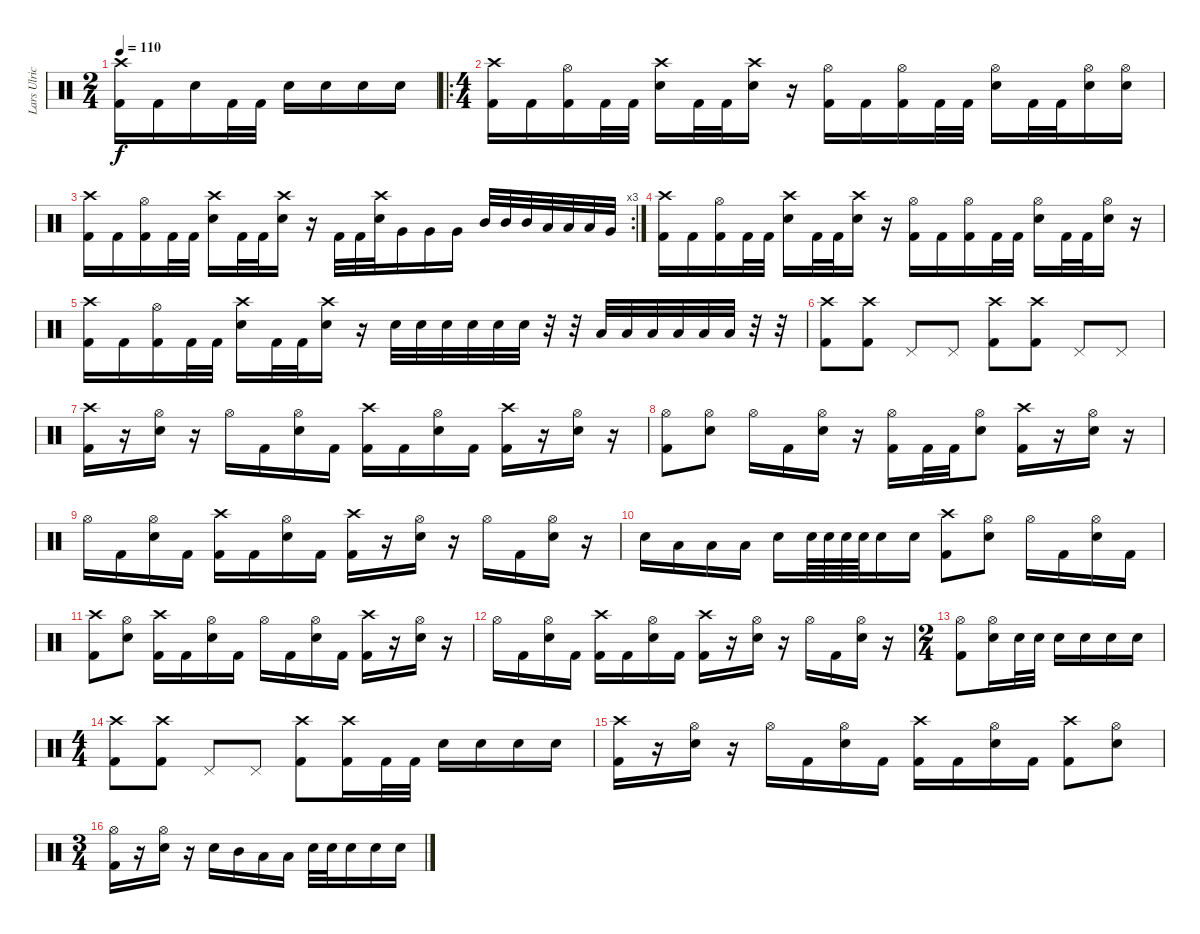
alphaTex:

\track ("Lars Ulrich" "Lars Ulric") {instrument percussion}
\staff {score}
\articulation defaults
\ts (2 4)
\tempo 110
\clef neutral
\ks c
("Crash high (hit)" "Kick (hit) 2").16{dy f} "Kick (hit) 2".16 "Snare (hit) 2".16 "Kick (hit) 2".32 "Kick (hit) 2".32 "Snare (hit) 2".16 "Snare (hit) 2".16 "Snare (hit) 2".16 "Snare (hit) 2".16 |
\ro
\ts (4 4)
("Crash high (hit)" "Kick (hit) 2").16 "Kick (hit) 2".16 ("Hi-Hat (open)" "Kick (hit) 2").16 "Kick (hit) 2".32 "Kick (hit) 2".32 ("Crash high (hit)" "Snare (hit) 2").16 "Kick (hit) 2".32 "Kick (hit) 2".32 ("Crash high (hit)" "Snare (hit) 2").16 r.16 ("Hi-Hat (open)" "Kick (hit) 2").16 "Kick (hit) 2".16 ("Hi-Hat (open)" "Kick (hit) 2").16 "Kick (hit) 2".32 "Kick (hit) 2".32 ("Hi-Hat (open)" "Snare (hit) 2").16 "Kick (hit) 2".32 "Kick (hit) 2".32 ("Hi-Hat (open)" "Snare (hit) 2").16 ("Hi-Hat (open)" "Snare (hit) 2").16 |
\rc 3
("Crash high (hit)" "Kick (hit) 2").16 "Kick (hit) 2".16 ("Hi-Hat (open)" "Kick (hit) 2").16 "Kick (hit) 2".32 "Kick (hit) 2".32 ("Crash high (hit)" "Snare (hit) 2").16 "Kick (hit) 2".32 "Kick (hit) 2".32 ("Crash high (hit)" "Snare (hit) 2").16 r.16 "Kick (hit) 2".32 "Kick (hit) 2".32 ("Crash high (hit)" "Snare (hit) 2").32 "Very Low Tom (hit)".16 "Very Low Tom (hit)".16 "Very Low Tom (hit)".16 "Mid Tom (hit)".32 "Mid Tom (hit)".32 "Mid Tom (hit)".32 "Low Tom (hit)".32 "Low Tom (hit)".32 "Low Tom (hit)".32 "Very Low Tom (hit)".32 |
("Crash high (hit)" "Kick (hit) 2").16 "Kick (hit) 2".16 ("Hi-Hat (open)" "Kick (hit) 2").16 "Kick (hit) 2".32 "Kick (hit) 2".32 ("Crash high (hit)" "Snare (hit) 2").16 "Kick (hit) 2".32 "Kick (hit) 2".32 ("Crash high (hit)" "Snare (hit) 2").16 r.16 ("Hi-Hat (open)" "Kick (hit) 2").16 "Kick (hit) 2".16 ("Hi-Hat (open)" "Kick (hit) 2").16 "Kick (hit) 2".32 "Kick (hit) 2".32 ("Hi-Hat (open)" "Snare (hit) 2").16 "Kick (hit) 2".32 "Kick (hit) 2".32 ("Hi-Hat (open)" "Snare (hit) 2").16 r.16 |
("Crash high (hit)" "Kick (hit) 2").16 "Kick (hit) 2".16 ("Hi-Hat (open)" "Kick (hit) 2").16 "Kick (hit) 2".32 "Kick (hit) 2".32 ("Crash high (hit)" "Snare (hit) 2").16 "Kick (hit) 2".32 "Kick (hit) 2".32 ("Crash high (hit)" "Snare (hit) 2").16 r.16 "Snare (hit) 2".32 "Snare (hit) 2".32 "Snare (hit) 2".32 "Snare (hit) 2".32 "Snare (hit) 2".32 "Snare (hit) 2".32 r.32 r.32 "Low Tom (hit)".32 "Low Tom (hit)".32 "Low Tom (hit)".32 "Low Tom (hit)".32 "Low Tom (hit)".32 "Low Tom (hit)".32 r.32 r.32 |
("Crash high (hit)" "Kick (hit) 2").8 ("Crash high (hit)" "Kick (hit) 2").8 "Pedal Hi-Hat (hit)".8 "Pedal Hi-Hat (hit)".8 ("Crash high (hit)" "Kick (hit) 2").8 ("Crash high (hit)" "Kick (hit) 2").8 "Pedal Hi-Hat (hit)".8 "Pedal Hi-Hat (hit)".8 |
("Crash high (hit)" "Kick (hit) 2").16 r.16 ("Hi-Hat (open)" "Snare (hit) 2").16 r.16 "Hi-Hat (open)".16 "Kick (hit) 2".16 ("Hi-Hat (open)" "Snare (hit) 2").16 "Kick (hit) 2".16 ("Crash high (hit)" "Kick (hit) 2").16 "Kick (hit) 2".16 ("Hi-Hat (open)" "Snare (hit) 2").16 "Kick (hit) 2".16 ("Crash high (hit)" "Kick (hit) 2").16 r.16 ("Hi-Hat (open)" "Snare (hit) 2").16 r.16 |
("Hi-Hat (open)" "Kick (hit) 2").8 ("Hi-Hat (open)" "Snare (hit) 2").8 "Hi-Hat (open)".16 "Kick (hit) 2".16 ("Hi-Hat (open)" "Snare (hit) 2").16 r.16 ("Hi-Hat (open)" "Kick (hit) 2").16 "Kick (hit) 2".32 "Kick (hit) 2".32 ("Hi-Hat (open)" "Snare (hit) 2").8 ("Crash high (hit)" "Kick (hit) 2").16 r.16 ("Hi-Hat (open)" "Snare (hit) 2").16 r.16 |
"Hi-Hat (open)".16 "Kick (hit) 2".16 ("Hi-Hat (open)" "Snare (hit) 2").16 "Kick (hit) 2".16 ("Crash high (hit)" "Kick (hit) 2").16 "Kick (hit) 2".16 ("Hi-Hat (open)" "Snare (hit) 2").16 "Kick (hit) 2".16 ("Crash high (hit)" "Kick (hit) 2").16 r.16 ("Hi-Hat (open)" "Snare (hit) 2").16 r.16 "Hi-Hat (open)".16 "Kick (hit) 2".16 ("Hi-Hat (open)" "Snare (hit) 2").16 r.16 |
"Snare (hit) 2".16 "Low Tom (hit)".16 "Low Tom (hit)".16 "Low Tom (hit)".16 "Snare (hit) 2".16 "Snare (hit) 2".64 "Snare (hit) 2".64 "Snare (hit) 2".64 "Snare (hit) 2".64 "Snare (hit) 2".16 "Snare (hit) 2".16 ("Crash high (hit)" "Kick (hit) 2").8 ("Hi-Hat (open)" "Snare (hit) 2").8 "Hi-Hat (open)".16 "Kick (hit) 2".16 ("Hi-Hat (open)" "Snare (hit) 2").16 "Kick (hit) 2".16 |
("Crash high (hit)" "Kick (hit) 2").8 ("Hi-Hat (open)" "Snare (hit) 2").8 ("Crash high (hit)" "Kick (hit) 2").16 "Kick (hit) 2".16 ("Hi-Hat (open)" "Snare (hit) 2").16 "Kick (hit) 2".16 "Hi-Hat (open)".16 "Kick (hit) 2".16 ("Hi-Hat (open)" "Snare (hit) 2").16 "Kick (hit) 2".16 ("Crash high (hit)" "Kick (hit) 2").16 r.16 ("Hi-Hat (open)" "Snare (hit) 2").16 r.16 |
"Hi-Hat (open)".16 "Kick (hit) 2".16 ("Hi-Hat (open)" "Snare (hit) 2").16 "Kick (hit) 2".16 ("Crash high (hit)" "Kick (hit) 2").16 "Kick (hit) 2".16 ("Hi-Hat (open)" "Snare (hit) 2").16 "Kick (hit) 2".16 ("Crash high (hit)" "Kick (hit) 2").16 r.16 ("Hi-Hat (open)" "Snare (hit) 2").16 r.16 "Hi-Hat (open)".16 "Kick (hit) 2".16 ("Hi-Hat (open)" "Snare (hit) 2").16 r.16 |
\ts (2 4)
("Hi-Hat (open)" "Kick (hit) 2").8 ("Hi-Hat (open)" "Snare (hit) 2").16 "Snare (hit) 2".32 "Snare (hit) 2".32 "Snare (hit) 2".16 "Snare (hit) 2".16 "Snare (hit) 2".16 "Snare (hit) 2".16 |
\ts (4 4)
("Crash high (hit)" "Kick (hit) 2").8 ("Crash high (hit)" "Kick (hit) 2").8 "Pedal Hi-Hat (hit)".8 "Pedal Hi-Hat (hit)".8 ("Crash high (hit)" "Kick (hit) 2").8 ("Crash high (hit)" "Kick (hit) 2").16 "Kick (hit) 2".32 "Kick (hit) 2".32 "Snare (hit) 2".16 "Snare (hit) 2".16 "Snare (hit) 2".16 "Snare (hit) 2".16 |
("Crash high (hit)" "Kick (hit) 2").16 r.16 ("Hi-Hat (open)" "Snare (hit) 2").16 r.16 "Hi-Hat (open)".16 "Kick (hit) 2".16 ("Hi-Hat (open)" "Snare (hit) 2").16 "Kick (hit) 2".16 ("Crash high (hit)" "Kick (hit) 2").16 "Kick (hit) 2".16 ("Hi-Hat (open)" "Snare (hit) 2").16 "Kick (hit) 2".16 ("Crash high (hit)" "Kick (hit) 2").8 ("Hi-Hat (open)" "Snare (hit) 2").8 |
\ts (3 4)
("Hi-Hat (open)" "Kick (hit) 2").16 r.16 ("Hi-Hat (open)" "Snare (hit) 2").16 r.16 "Snare (hit) 2".16 "Mid Tom (hit)".16 "Low Tom (hit)".16 "Low Tom (hit)".16 "Snare (hit) 2".32 "Snare (hit) 2".32 "Snare (hit) 2".16 "Snare (hit) 2".16 "Snare (hit) 2".16
